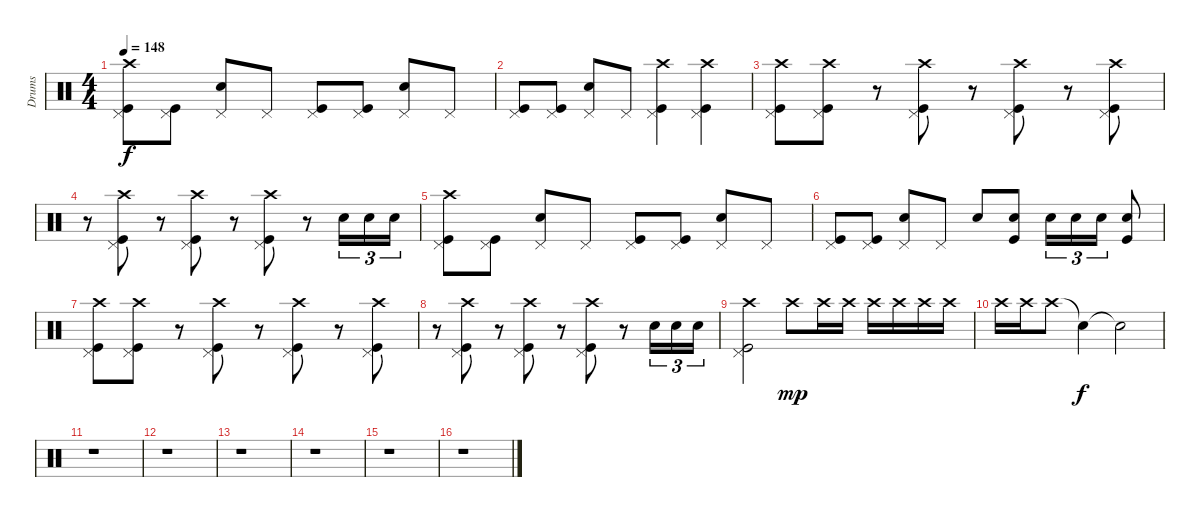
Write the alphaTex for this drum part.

\track ("Drums" "Drums") {instrument percussion}
\staff {score}
\articulation defaults
\ts (4 4)
\tempo 148
\clef neutral
\ks c
("Pedal Hi-Hat (hit)" "Kick (hit)" "Crash high (hit)").8{dy f} ("Pedal Hi-Hat (hit)" "Kick (hit)").8 ("Pedal Hi-Hat (hit)" "Snare (hit) 2").8 "Pedal Hi-Hat (hit)".8 ("Pedal Hi-Hat (hit)" "Kick (hit)").8 ("Pedal Hi-Hat (hit)" "Kick (hit)").8 ("Pedal Hi-Hat (hit)" "Snare (hit) 2").8 "Pedal Hi-Hat (hit)".8 |
("Pedal Hi-Hat (hit)" "Kick (hit)").8 ("Pedal Hi-Hat (hit)" "Kick (hit)").8 ("Pedal Hi-Hat (hit)" "Snare (hit) 2").8 "Pedal Hi-Hat (hit)".8 ("Pedal Hi-Hat (hit)" "Crash high (hit)" "Kick (hit)").4 ("Pedal Hi-Hat (hit)" "Crash high (hit)" "Kick (hit)").4 |
("Pedal Hi-Hat (hit)" "Kick (hit)" "Crash high (hit)").8 ("Pedal Hi-Hat (hit)" "Kick (hit)" "Crash high (hit)").8 r.8 ("Pedal Hi-Hat (hit)" "Kick (hit)" "Crash high (hit)").8 r.8 ("Pedal Hi-Hat (hit)" "Kick (hit)" "Crash high (hit)").8 r.8 ("Pedal Hi-Hat (hit)" "Kick (hit)" "Crash high (hit)").8 |
r.8 ("Pedal Hi-Hat (hit)" "Kick (hit)" "Crash high (hit)").8 r.8 ("Pedal Hi-Hat (hit)" "Kick (hit)" "Crash high (hit)").8 r.8 ("Pedal Hi-Hat (hit)" "Kick (hit)" "Crash high (hit)").8 r.8 "Snare (hit) 2".16{tu (3 2)} "Snare (hit) 2".16{tu (3 2)} "Snare (hit) 2".16{tu (3 2)} |
("Pedal Hi-Hat (hit)" "Kick (hit)" "Crash high (hit)").8 ("Pedal Hi-Hat (hit)" "Kick (hit)").8 ("Pedal Hi-Hat (hit)" "Snare (hit) 2").8 "Pedal Hi-Hat (hit)".8 ("Pedal Hi-Hat (hit)" "Kick (hit)").8 ("Pedal Hi-Hat (hit)" "Kick (hit)").8 ("Pedal Hi-Hat (hit)" "Snare (hit) 2").8 "Pedal Hi-Hat (hit)".8 |
("Pedal Hi-Hat (hit)" "Kick (hit)").8 ("Pedal Hi-Hat (hit)" "Kick (hit)").8 ("Pedal Hi-Hat (hit)" "Snare (hit) 2").8 "Pedal Hi-Hat (hit)".8 "Snare (hit) 2".8 ("Snare (hit) 2" "Kick (hit)").8 "Snare (hit) 2".16{tu (3 2)} "Snare (hit) 2".16{tu (3 2)} "Snare (hit) 2".16{tu (3 2)} ("Snare (hit) 2" "Kick (hit)").8 |
("Pedal Hi-Hat (hit)" "Kick (hit)" "Crash high (hit)").8 ("Pedal Hi-Hat (hit)" "Kick (hit)" "Crash high (hit)").8 r.8 ("Pedal Hi-Hat (hit)" "Kick (hit)" "Crash high (hit)").8 r.8 ("Pedal Hi-Hat (hit)" "Kick (hit)" "Crash high (hit)").8 r.8 ("Pedal Hi-Hat (hit)" "Kick (hit)" "Crash high (hit)").8 |
r.8 ("Pedal Hi-Hat (hit)" "Kick (hit)" "Crash high (hit)").8 r.8 ("Pedal Hi-Hat (hit)" "Kick (hit)" "Crash high (hit)").8 r.8 ("Pedal Hi-Hat (hit)" "Kick (hit)" "Crash high (hit)").8 r.8 "Snare (hit) 2".16{tu (3 2)} "Snare (hit) 2".16{tu (3 2)} "Snare (hit) 2".16{tu (3 2)} |
("Pedal Hi-Hat (hit)" "Crash high (hit)" "Kick (hit)").2 "Crash high (hit)".8{dy mp} "Crash high (hit)".16 "Crash high (hit)".16 "Crash high (hit)".16 "Crash high (hit)".16 "Crash high (hit)".16 "Crash high (hit)".16 |
"Crash high (hit)".16 "Crash high (hit)".16 "Crash high (hit)".8 "Snare (hit)"{t}.4{dy f} "Snare (hit)"{t}.2 |
r.1 |
r.1 |
r.1 |
r.1 |
r.1 |
r.1
